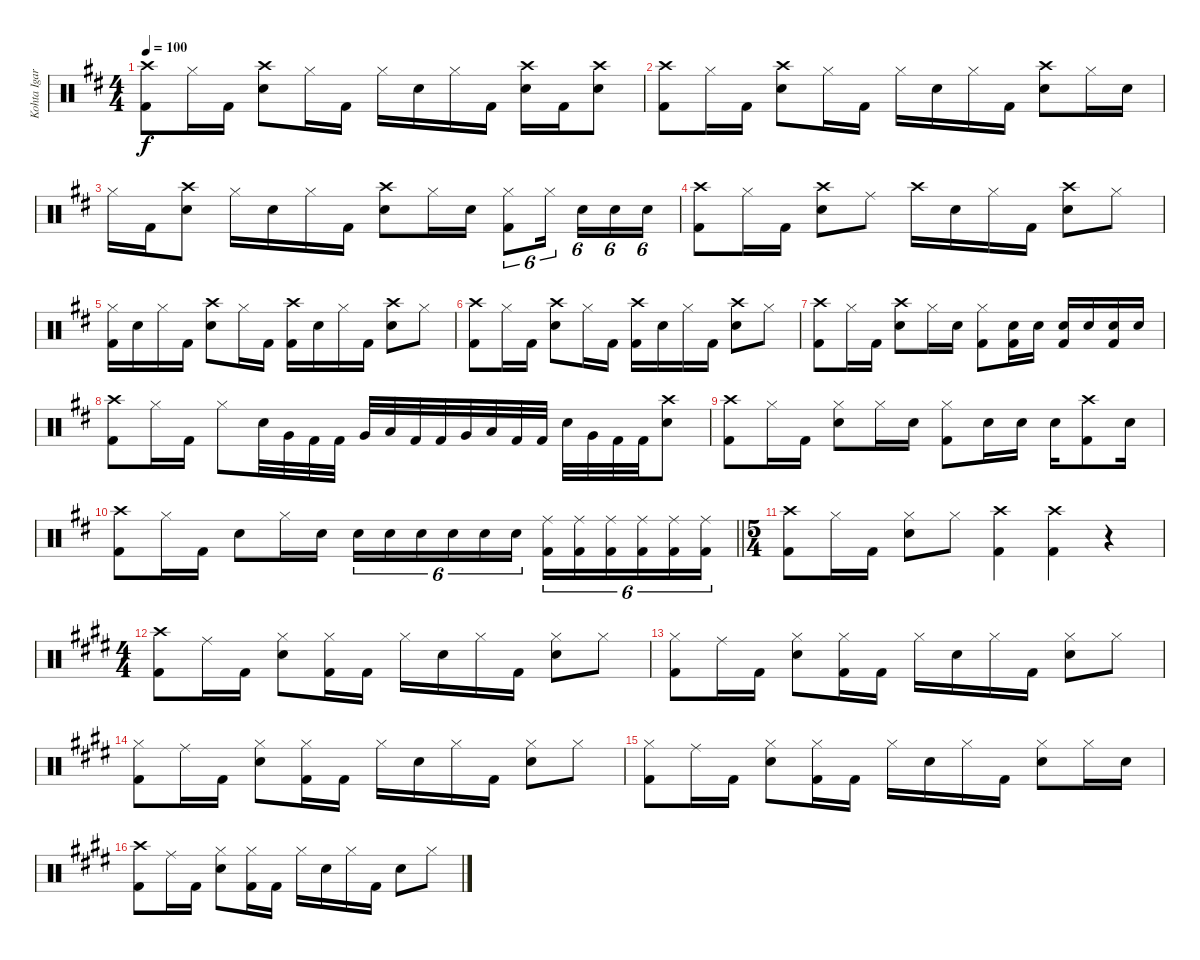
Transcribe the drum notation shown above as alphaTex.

\track ("Kohta Igarashi" "Kohta Igar") {instrument percussion}
\staff {score}
\articulation defaults
\ts (4 4)
\tempo 100
\clef neutral
\ks d
("Crash high (hit)" "Kick (hit) 2").8{dy f} "Hi-Hat (closed)".16 "Kick (hit) 2".16 ("Crash high (hit)" "Electric Snare (hit)").8 "Hi-Hat (closed)".16 "Kick (hit) 2".16 "Hi-Hat (closed)".16 "Electric Snare (hit)".16 "Hi-Hat (closed)".16 "Kick (hit) 2".16 ("Crash high (hit)" "Electric Snare (hit)").16 "Kick (hit) 2".16 ("Crash high (hit)" "Electric Snare (hit)").8 |
("Crash high (hit)" "Kick (hit) 2").8 "Hi-Hat (closed)".16 "Kick (hit) 2".16 ("Crash high (hit)" "Electric Snare (hit)").8 "Hi-Hat (closed)".16 "Kick (hit) 2".16 "Hi-Hat (closed)".16 "Electric Snare (hit)".16 "Hi-Hat (closed)".16 "Kick (hit) 2".16 ("Crash high (hit)" "Electric Snare (hit)").8 "Hi-Hat (closed)".16 "Electric Snare (hit)".16 |
"Hi-Hat (closed)".16 "Kick (hit) 2".16 ("Crash high (hit)" "Electric Snare (hit)").8 "Hi-Hat (closed)".16 "Electric Snare (hit)".16 "Hi-Hat (closed)".16 "Kick (hit) 2".16 ("Crash high (hit)" "Electric Snare (hit)").8 "Hi-Hat (closed)".16 "Electric Snare (hit)".16 ("Hi-Hat (closed)" "Kick (hit) 2").8{tu (6 4)} "Hi-Hat (closed)".16{tu (6 4)} "Electric Snare (hit)".16{tu (6 4)} "Electric Snare (hit)".16{tu (6 4)} "Electric Snare (hit)".16{tu (6 4)} |
("Crash high (hit)" "Kick (hit) 2").8 "Hi-Hat (closed)".16 "Kick (hit) 2".16 ("Crash high (hit)" "Electric Snare (hit)").8 "Ride (middle)".8 "Crash high (hit)".16 "Electric Snare (hit)".16 "Hi-Hat (closed)".16 "Kick (hit) 2".16 ("Crash high (hit)" "Electric Snare (hit)").8 "Hi-Hat (closed)".8 |
("Hi-Hat (closed)" "Kick (hit) 2").16 "Electric Snare (hit)".16 "Hi-Hat (closed)".16 "Kick (hit) 2".16 ("Crash high (hit)" "Electric Snare (hit)").8 "Hi-Hat (closed)".16 "Kick (hit) 2".16 ("Crash high (hit)" "Kick (hit) 2").16 "Electric Snare (hit)".16 "Hi-Hat (closed)".16 "Kick (hit) 2".16 ("Crash high (hit)" "Electric Snare (hit)").8 "Hi-Hat (closed)".8 |
("Crash high (hit)" "Kick (hit) 2").8 "Hi-Hat (closed)".16 "Kick (hit) 2".16 ("Crash high (hit)" "Electric Snare (hit)").8 "Hi-Hat (closed)".16 "Kick (hit) 2".16 ("Crash high (hit)" "Kick (hit) 2").16 "Electric Snare (hit)".16 "Hi-Hat (closed)".16 "Kick (hit) 2".16 ("Crash high (hit)" "Electric Snare (hit)").8 "Hi-Hat (closed)".8 |
("Crash high (hit)" "Kick (hit) 2").8 "Hi-Hat (closed)".16 "Kick (hit) 2".16 ("Crash high (hit)" "Electric Snare (hit)").8 "Hi-Hat (closed)".16 "Electric Snare (hit)".16 ("Hi-Hat (closed)" "Kick (hit) 2").8 ("Electric Snare (hit)" "Kick (hit) 2").16 "Electric Snare (hit)".16 ("Electric Snare (hit)" "Kick (hit) 2").16 "Electric Snare (hit)".16 ("Electric Snare (hit)" "Kick (hit) 2").16 "Electric Snare (hit)".16 |
("Crash high (hit)" "Kick (hit) 2").8 "Hi-Hat (closed)".16 "Kick (hit) 2".16 "Hi-Hat (closed)".8 "Electric Snare (hit)".32 "Very Low Tom (hit)".32 "Kick (hit) 2".32 "Kick (hit) 2".32 "Very Low Tom (hit)".32 "Low Floor Tom (hit)".32 "Kick (hit) 2".32 "Kick (hit) 2".32 "Very Low Tom (hit)".32 "Low Floor Tom (hit)".32 "Kick (hit) 2".32 "Kick (hit) 2".32 "Electric Snare (hit)".32 "Very Low Tom (hit)".32 "Kick (hit) 2".32 "Kick (hit) 2".32 ("Crash high (hit)" "Electric Snare (hit)").8 |
("Crash high (hit)" "Kick (hit) 2").8 "Hi-Hat (closed)".16 "Kick (hit) 2".16 ("Hi-Hat (closed)" "Electric Snare (hit)").8 "Hi-Hat (closed)".16 "Electric Snare (hit)".16 ("Hi-Hat (closed)" "Kick (hit) 2").8 "Electric Snare (hit)".16 "Electric Snare (hit)".16 "Electric Snare (hit)".16 ("Crash high (hit)" "Kick (hit) 2").8 "Electric Snare (hit)".16 |
\barLineRight lightlight
("Crash high (hit)" "Kick (hit) 2").8 "Hi-Hat (closed)".16 "Kick (hit) 2".16 "Electric Snare (hit)".8 "Hi-Hat (closed)".16 "Electric Snare (hit)".16 "Electric Snare (hit)".16{tu (6 4)} "Electric Snare (hit)".16{tu (6 4)} "Electric Snare (hit)".16{tu (6 4)} "Electric Snare (hit)".16{tu (6 4)} "Electric Snare (hit)".16{tu (6 4)} "Electric Snare (hit)".16{tu (6 4)} ("Ride (middle)" "Kick (hit) 2").16{tu (6 4)} ("Ride (middle)" "Kick (hit) 2").16{tu (6 4)} ("Ride (middle)" "Kick (hit) 2").16{tu (6 4)} ("Ride (middle)" "Kick (hit) 2").16{tu (6 4)} ("Ride (middle)" "Kick (hit) 2").16{tu (6 4)} ("Ride (middle)" "Kick (hit) 2").16{tu (6 4)} |
\ts (5 4)
("Crash high (hit)" "Kick (hit) 2").8 "Hi-Hat (closed)".16 "Kick (hit) 2".16 ("Hi-Hat (closed)" "Electric Snare (hit)").8 "Hi-Hat (closed)".8 ("Crash high (hit)" "Kick (hit) 2").4 ("Crash high (hit)" "Kick (hit) 2").4 r.4 |
\ts (4 4)
\ks e
("Crash high (hit)" "Kick (hit) 2").8 "Ride (middle)".16 "Kick (hit) 2".16 ("Hi-Hat (closed)" "Electric Snare (hit)").8 ("Hi-Hat (closed)" "Kick (hit) 2").16 "Kick (hit) 2".16 "Hi-Hat (closed)".16 "Electric Snare (hit)".16 "Hi-Hat (closed)".16 "Kick (hit) 2".16 ("Hi-Hat (closed)" "Electric Snare (hit)").8 "Hi-Hat (closed)".8 |
("Hi-Hat (closed)" "Kick (hit) 2").8 "Ride (middle)".16 "Kick (hit) 2".16 ("Hi-Hat (closed)" "Electric Snare (hit)").8 ("Hi-Hat (closed)" "Kick (hit) 2").16 "Kick (hit) 2".16 "Hi-Hat (closed)".16 "Electric Snare (hit)".16 "Hi-Hat (closed)".16 "Kick (hit) 2".16 ("Hi-Hat (closed)" "Electric Snare (hit)").8 "Hi-Hat (closed)".8 |
("Hi-Hat (closed)" "Kick (hit) 2").8 "Ride (middle)".16 "Kick (hit) 2".16 ("Hi-Hat (closed)" "Electric Snare (hit)").8 ("Hi-Hat (closed)" "Kick (hit) 2").16 "Kick (hit) 2".16 "Hi-Hat (closed)".16 "Electric Snare (hit)".16 "Hi-Hat (closed)".16 "Kick (hit) 2".16 ("Hi-Hat (closed)" "Electric Snare (hit)").8 "Hi-Hat (closed)".8 |
("Hi-Hat (closed)" "Kick (hit) 2").8 "Ride (middle)".16 "Kick (hit) 2".16 ("Hi-Hat (closed)" "Electric Snare (hit)").8 ("Hi-Hat (closed)" "Kick (hit) 2").16 "Kick (hit) 2".16 "Hi-Hat (closed)".16 "Electric Snare (hit)".16 "Hi-Hat (closed)".16 "Kick (hit) 2".16 ("Hi-Hat (closed)" "Electric Snare (hit)").8 "Hi-Hat (closed)".16 "Electric Snare (hit)".16 |
("Crash high (hit)" "Kick (hit) 2").8 "Ride (middle)".16 "Kick (hit) 2".16 ("Hi-Hat (closed)" "Electric Snare (hit)").8 ("Hi-Hat (closed)" "Kick (hit) 2").16 "Kick (hit) 2".16 "Hi-Hat (closed)".16 "Electric Snare (hit)".16 "Hi-Hat (closed)".16 "Kick (hit) 2".16 "Electric Snare (hit)".8 "Hi-Hat (closed)".8
